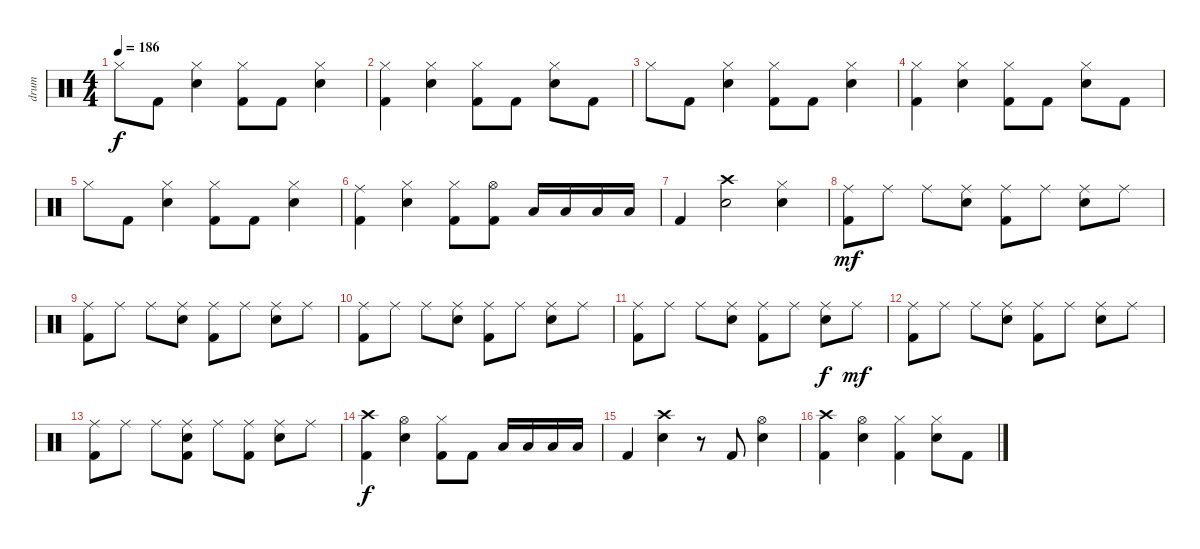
\track ("drum" "drum") {instrument percussion}
\staff {score}
\articulation defaults
\ts (4 4)
\tempo 186
\clef neutral
\ks c "Hi-Hat (closed)".8{dy f} "Kick (hit) 2".8
("Hi-Hat (closed)" "Snare (hit) 2").4 ("Hi-Hat (closed)" "Kick (hit) 2").8 "Kick (hit) 2".8 ("Hi-Hat (closed)" "Snare (hit) 2").4 |
("Hi-Hat (closed)" "Kick (hit) 2").4 ("Hi-Hat (closed)" "Snare (hit) 2").4 ("Hi-Hat (closed)" "Kick (hit) 2").8 "Kick (hit) 2".8 ("Hi-Hat (closed)" "Snare (hit) 2").8 "Kick (hit) 2".8 |
"Hi-Hat (closed)".8 "Kick (hit) 2".8 ("Hi-Hat (closed)" "Snare (hit) 2").4 ("Hi-Hat (closed)" "Kick (hit) 2").8 "Kick (hit) 2".8 ("Hi-Hat (closed)" "Snare (hit) 2").4 |
("Hi-Hat (closed)" "Kick (hit) 2").4 ("Hi-Hat (closed)" "Snare (hit) 2").4 ("Hi-Hat (closed)" "Kick (hit) 2").8 "Kick (hit) 2".8 ("Hi-Hat (closed)" "Snare (hit) 2").8 "Kick (hit) 2".8 |
"Hi-Hat (closed)".8 "Kick (hit) 2".8 ("Hi-Hat (closed)" "Snare (hit) 2").4 ("Hi-Hat (closed)" "Kick (hit) 2").8 "Kick (hit) 2".8 ("Hi-Hat (closed)" "Snare (hit) 2").4 |
("Ride (middle)" "Kick (hit) 2").4 ("Hi-Hat (closed)" "Snare (hit) 2").4 ("Hi-Hat (closed)" "Kick (hit) 2").8 ("Hi-Hat (open)" "Kick (hit) 2").8 "Low Floor Tom (hit)".16 "Low Floor Tom (hit)".16 "Low Floor Tom (hit)".16 "Low Floor Tom (hit)".16 |
"Kick (hit) 2".4 ("Crash high (hit)" "Snare (hit) 2").2 ("Hi-Hat (closed)" "Snare (hit) 2").4 |
("Ride (middle)" "Kick (hit) 2").8{dy mf} "Ride (middle)".8 "Ride (middle)".8 ("Ride (middle)" "Snare (hit) 2").8 ("Ride (middle)" "Kick (hit) 2").8 "Ride (middle)".8 ("Ride (middle)" "Snare (hit) 2").8 "Ride (middle)".8 |
("Ride (middle)" "Kick (hit) 2").8 "Ride (middle)".8 "Ride (middle)".8 ("Ride (middle)" "Snare (hit) 2").8 ("Ride (middle)" "Kick (hit) 2").8 "Ride (middle)".8 ("Ride (middle)" "Snare (hit) 2").8 "Ride (middle)".8 |
("Ride (middle)" "Kick (hit) 2").8 "Ride (middle)".8 "Ride (middle)".8 ("Ride (middle)" "Snare (hit) 2").8 ("Ride (middle)" "Kick (hit) 2").8 "Ride (middle)".8 ("Ride (middle)" "Snare (hit) 2").8 "Ride (middle)".8 |
("Ride (middle)" "Kick (hit) 2").8 "Ride (middle)".8 "Ride (middle)".8 ("Ride (middle)" "Snare (hit) 2").8 ("Ride (middle)" "Kick (hit) 2").8 "Ride (middle)".8 ("Ride (middle)" "Snare (hit) 2").8{dy f} "Ride (middle)".8{dy mf} |
("Ride (middle)" "Kick (hit) 2").8 "Ride (middle)".8 "Ride (middle)".8 ("Ride (middle)" "Snare (hit) 2").8 ("Ride (middle)" "Kick (hit) 2").8 "Ride (middle)".8 ("Ride (middle)" "Snare (hit) 2").8 "Ride (middle)".8 |
("Ride (middle)" "Kick (hit) 2").8 "Ride (middle)".8 "Ride (middle)".8 ("Ride (middle)" "Snare (hit) 2" "Kick (hit) 2").8 "Ride (middle)".8 ("Ride (middle)" "Kick (hit) 2").8 ("Ride (middle)" "Snare (hit) 2").8 "Ride (middle)".8 |
("Crash high (hit)" "Kick (hit) 2").4{dy f} ("Hi-Hat (open)" "Snare (hit) 2").4 ("Hi-Hat (closed)" "Kick (hit) 2").8 "Kick (hit) 2".8 "Low Floor Tom (hit)".16 "Low Floor Tom (hit)".16 "Low Floor Tom (hit)".16 "Low Floor Tom (hit)".16 |
"Kick (hit) 2".4 ("Crash high (hit)" "Snare (hit) 2").4 r.8 "Kick (hit) 2".8 ("Hi-Hat (open)" "Snare (hit) 2").4 |
("Crash high (hit)" "Kick (hit) 2").4 ("Hi-Hat (open)" "Snare (hit) 2").4 ("Hi-Hat (closed)" "Kick (hit) 2").4 ("Hi-Hat (closed)" "Snare (hit) 2").8 "Kick (hit) 2".8
